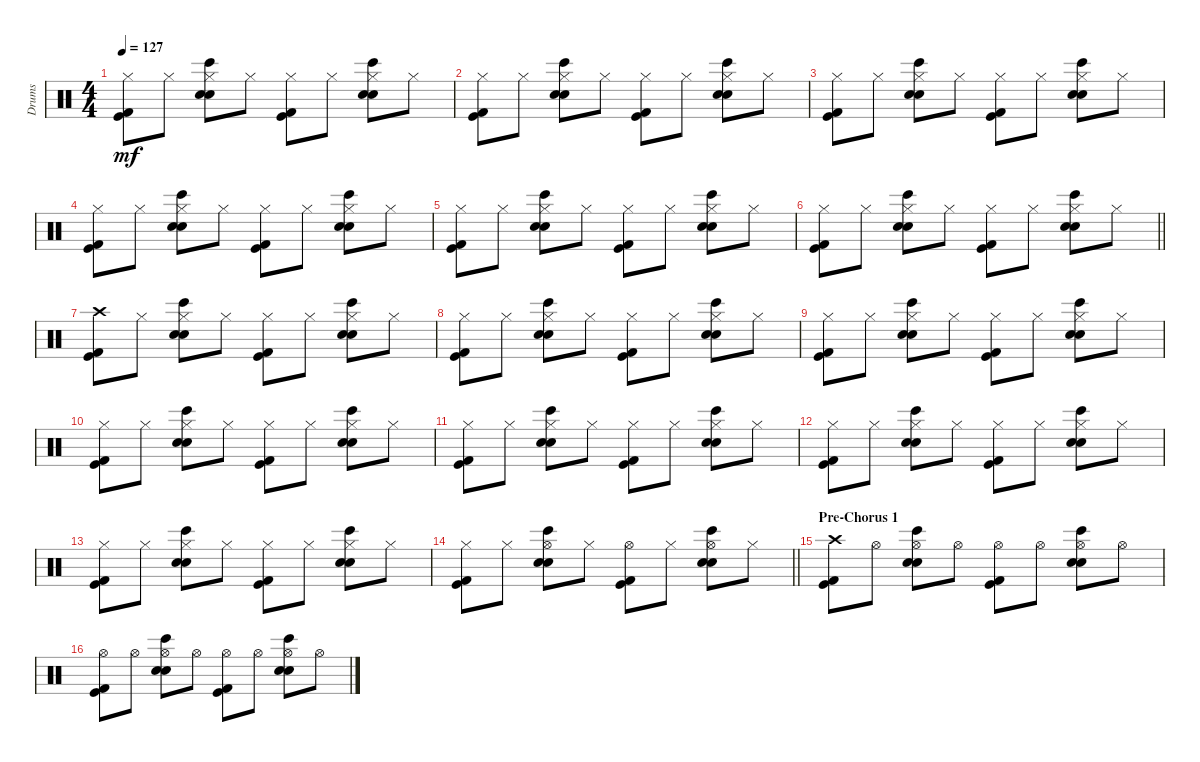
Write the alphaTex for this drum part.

\track ("Drums" "Drums") {instrument percussion}
\staff {score}
\articulation defaults
\ts (4 4)
\tempo 127
\clef neutral
\ks c
("Hi-Hat (closed)" "Kick (hit) 2" "Kick (hit)").8{dy mf} "Hi-Hat (closed)".8 ("Hi-Hat (closed)" "Bongo High (hit)" "Snare (hit) 2" "Electric Snare (hit)").8 "Hi-Hat (closed)".8 ("Hi-Hat (closed)" "Kick (hit) 2" "Kick (hit)").8 "Hi-Hat (closed)".8 ("Hi-Hat (closed)" "Bongo High (hit)" "Snare (hit) 2" "Electric Snare (hit)").8 "Hi-Hat (closed)".8 |
("Hi-Hat (closed)" "Kick (hit) 2" "Kick (hit)").8 "Hi-Hat (closed)".8 ("Hi-Hat (closed)" "Bongo High (hit)" "Snare (hit) 2" "Electric Snare (hit)").8 "Hi-Hat (closed)".8 ("Hi-Hat (closed)" "Kick (hit) 2" "Kick (hit)").8 "Hi-Hat (closed)".8 ("Hi-Hat (closed)" "Bongo High (hit)" "Snare (hit) 2" "Electric Snare (hit)").8 "Hi-Hat (closed)".8 |
("Hi-Hat (closed)" "Kick (hit) 2" "Kick (hit)").8 "Hi-Hat (closed)".8 ("Hi-Hat (closed)" "Bongo High (hit)" "Snare (hit) 2" "Electric Snare (hit)").8 "Hi-Hat (closed)".8 ("Hi-Hat (closed)" "Kick (hit) 2" "Kick (hit)").8 "Hi-Hat (closed)".8 ("Hi-Hat (closed)" "Bongo High (hit)" "Snare (hit) 2" "Electric Snare (hit)").8 "Hi-Hat (closed)".8 |
("Hi-Hat (closed)" "Kick (hit) 2" "Kick (hit)").8 "Hi-Hat (closed)".8 ("Hi-Hat (closed)" "Bongo High (hit)" "Snare (hit) 2" "Electric Snare (hit)").8 "Hi-Hat (closed)".8 ("Hi-Hat (closed)" "Kick (hit) 2" "Kick (hit)").8 "Hi-Hat (closed)".8 ("Hi-Hat (closed)" "Bongo High (hit)" "Snare (hit) 2" "Electric Snare (hit)").8 "Hi-Hat (closed)".8 |
("Hi-Hat (closed)" "Kick (hit) 2" "Kick (hit)").8 "Hi-Hat (closed)".8 ("Hi-Hat (closed)" "Bongo High (hit)" "Snare (hit) 2" "Electric Snare (hit)").8 "Hi-Hat (closed)".8 ("Hi-Hat (closed)" "Kick (hit) 2" "Kick (hit)").8 "Hi-Hat (closed)".8 ("Hi-Hat (closed)" "Bongo High (hit)" "Snare (hit) 2" "Electric Snare (hit)").8 "Hi-Hat (closed)".8 |
\barLineRight lightlight
("Hi-Hat (closed)" "Kick (hit) 2" "Kick (hit)").8 "Hi-Hat (closed)".8 ("Hi-Hat (closed)" "Bongo High (hit)" "Snare (hit) 2" "Electric Snare (hit)").8 "Hi-Hat (closed)".8 ("Hi-Hat (closed)" "Kick (hit) 2" "Kick (hit)").8 "Hi-Hat (closed)".8 ("Hi-Hat (closed)" "Bongo High (hit)" "Snare (hit) 2" "Electric Snare (hit)").8 "Hi-Hat (closed)".8 |
("Crash high (hit)" "Kick (hit) 2" "Kick (hit)").8 "Hi-Hat (closed)".8 ("Hi-Hat (closed)" "Bongo High (hit)" "Snare (hit) 2" "Electric Snare (hit)").8 "Hi-Hat (closed)".8 ("Hi-Hat (closed)" "Kick (hit) 2" "Kick (hit)").8 "Hi-Hat (closed)".8 ("Hi-Hat (closed)" "Bongo High (hit)" "Snare (hit) 2" "Electric Snare (hit)").8 "Hi-Hat (closed)".8 |
("Hi-Hat (closed)" "Kick (hit) 2" "Kick (hit)").8 "Hi-Hat (closed)".8 ("Hi-Hat (closed)" "Bongo High (hit)" "Snare (hit) 2" "Electric Snare (hit)").8 "Hi-Hat (closed)".8 ("Hi-Hat (closed)" "Kick (hit) 2" "Kick (hit)").8 "Hi-Hat (closed)".8 ("Hi-Hat (closed)" "Bongo High (hit)" "Snare (hit) 2" "Electric Snare (hit)").8 "Hi-Hat (closed)".8 |
("Hi-Hat (closed)" "Kick (hit) 2" "Kick (hit)").8 "Hi-Hat (closed)".8 ("Hi-Hat (closed)" "Bongo High (hit)" "Snare (hit) 2" "Electric Snare (hit)").8 "Hi-Hat (closed)".8 ("Hi-Hat (closed)" "Kick (hit) 2" "Kick (hit)").8 "Hi-Hat (closed)".8 ("Hi-Hat (closed)" "Bongo High (hit)" "Snare (hit) 2" "Electric Snare (hit)").8 "Hi-Hat (closed)".8 |
("Hi-Hat (closed)" "Kick (hit) 2" "Kick (hit)").8 "Hi-Hat (closed)".8 ("Hi-Hat (closed)" "Bongo High (hit)" "Snare (hit) 2" "Electric Snare (hit)").8 "Hi-Hat (closed)".8 ("Hi-Hat (closed)" "Kick (hit) 2" "Kick (hit)").8 "Hi-Hat (closed)".8 ("Hi-Hat (closed)" "Bongo High (hit)" "Snare (hit) 2" "Electric Snare (hit)").8 "Hi-Hat (closed)".8 |
("Hi-Hat (closed)" "Kick (hit) 2" "Kick (hit)").8 "Hi-Hat (closed)".8 ("Hi-Hat (closed)" "Bongo High (hit)" "Snare (hit) 2" "Electric Snare (hit)").8 "Hi-Hat (closed)".8 ("Hi-Hat (closed)" "Kick (hit) 2" "Kick (hit)").8 "Hi-Hat (closed)".8 ("Hi-Hat (closed)" "Bongo High (hit)" "Snare (hit) 2" "Electric Snare (hit)").8 "Hi-Hat (closed)".8 |
("Hi-Hat (closed)" "Kick (hit) 2" "Kick (hit)").8 "Hi-Hat (closed)".8 ("Hi-Hat (closed)" "Bongo High (hit)" "Snare (hit) 2" "Electric Snare (hit)").8 "Hi-Hat (closed)".8 ("Hi-Hat (closed)" "Kick (hit) 2" "Kick (hit)").8 "Hi-Hat (closed)".8 ("Hi-Hat (closed)" "Bongo High (hit)" "Snare (hit) 2" "Electric Snare (hit)").8 "Hi-Hat (closed)".8 |
("Hi-Hat (closed)" "Kick (hit) 2" "Kick (hit)").8 "Hi-Hat (closed)".8 ("Hi-Hat (closed)" "Bongo High (hit)" "Snare (hit) 2" "Electric Snare (hit)").8 "Hi-Hat (closed)".8 ("Hi-Hat (closed)" "Kick (hit) 2" "Kick (hit)").8 "Hi-Hat (closed)".8 ("Hi-Hat (closed)" "Bongo High (hit)" "Snare (hit) 2" "Electric Snare (hit)").8 "Hi-Hat (closed)".8 |
\barLineRight lightlight
("Hi-Hat (closed)" "Kick (hit) 2" "Kick (hit)").8 "Hi-Hat (closed)".8 ("Hi-Hat (open)" "Bongo High (hit)" "Snare (hit) 2" "Electric Snare (hit)").8 "Hi-Hat (closed)".8 ("Hi-Hat (open)" "Kick (hit) 2" "Kick (hit)").8 "Hi-Hat (closed)".8 ("Hi-Hat (open)" "Bongo High (hit)" "Snare (hit) 2" "Electric Snare (hit)").8 "Hi-Hat (closed)".8 |
\section ("" "Pre-Chorus 1")
("Crash high (hit)" "Kick (hit) 2" "Kick (hit)").8 "Hi-Hat (open)".8 ("Hi-Hat (open)" "Bongo High (hit)" "Snare (hit) 2" "Electric Snare (hit)").8 "Hi-Hat (open)".8 ("Hi-Hat (open)" "Kick (hit) 2" "Kick (hit)").8 "Hi-Hat (open)".8 ("Hi-Hat (open)" "Bongo High (hit)" "Snare (hit) 2" "Electric Snare (hit)").8 "Hi-Hat (open)".8 |
("Hi-Hat (open)" "Kick (hit) 2" "Kick (hit)").8 "Hi-Hat (open)".8 ("Hi-Hat (open)" "Bongo High (hit)" "Snare (hit) 2" "Electric Snare (hit)").8 "Hi-Hat (open)".8 ("Hi-Hat (open)" "Kick (hit) 2" "Kick (hit)").8 "Hi-Hat (open)".8 ("Hi-Hat (open)" "Bongo High (hit)" "Snare (hit) 2" "Electric Snare (hit)").8 "Hi-Hat (open)".8
